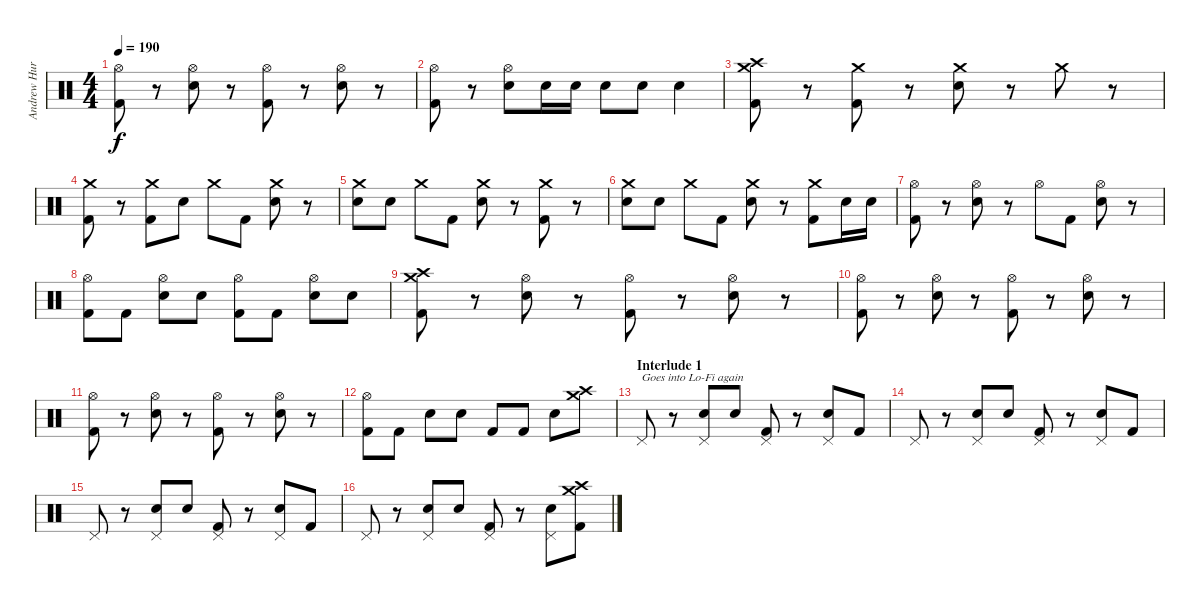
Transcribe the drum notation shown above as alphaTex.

\track ("Andrew Hurley (Drums)" "Andrew Hur") {instrument percussion}
\staff {score}
\articulation defaults
\ts (4 4)
\tempo 190
\clef neutral
\ks c
("Hi-Hat (open)" "Kick (hit) 2").8{dy f} r.8 ("Hi-Hat (open)" "Electric Snare (hit)").8 r.8 ("Hi-Hat (open)" "Kick (hit) 2").8 r.8 ("Hi-Hat (open)" "Electric Snare (hit)").8 r.8 |
("Hi-Hat (open)" "Kick (hit) 2").8 r.8 ("Hi-Hat (open)" "Electric Snare (hit)").8 "Electric Snare (hit)".16 "Electric Snare (hit)".16 "Electric Snare (hit)".8 "Electric Snare (hit)".8 "Electric Snare (hit)".4 |
("Crash medium (hit)" "Crash high (hit)" "Kick (hit) 2").8 r.8 ("Crash medium (hit)" "Kick (hit) 2").8 r.8 ("Crash medium (hit)" "Electric Snare (hit)").8 r.8 "Crash medium (hit)".8 r.8 |
("Crash medium (hit)" "Kick (hit) 2").8 r.8 ("Crash medium (hit)" "Kick (hit) 2").8 "Electric Snare (hit)".8 "Crash medium (hit)".8 "Kick (hit) 2".8 ("Crash medium (hit)" "Electric Snare (hit)").8 r.8 |
("Crash medium (hit)" "Electric Snare (hit)").8 "Electric Snare (hit)".8 "Crash medium (hit)".8 "Kick (hit) 2".8 ("Crash medium (hit)" "Electric Snare (hit)").8 r.8 ("Crash medium (hit)" "Kick (hit) 2").8 r.8 |
("Crash medium (hit)" "Electric Snare (hit)").8 "Electric Snare (hit)".8 "Crash medium (hit)".8 "Kick (hit) 2".8 ("Crash medium (hit)" "Electric Snare (hit)").8 r.8 ("Crash medium (hit)" "Kick (hit) 2").8 "Electric Snare (hit)".16 "Electric Snare (hit)".16 |
("Hi-Hat (open)" "Kick (hit) 2").8 r.8 ("Hi-Hat (open)" "Electric Snare (hit)").8 r.8 "Hi-Hat (open)".8 "Kick (hit) 2".8 ("Hi-Hat (open)" "Electric Snare (hit)").8 r.8 |
("Hi-Hat (open)" "Kick (hit) 2").8 "Kick (hit) 2".8 ("Hi-Hat (open)" "Electric Snare (hit)").8 "Electric Snare (hit)".8 ("Hi-Hat (open)" "Kick (hit) 2").8 "Kick (hit) 2".8 ("Hi-Hat (open)" "Electric Snare (hit)").8 "Electric Snare (hit)".8 |
("Crash high (hit)" "Crash medium (hit)" "Kick (hit) 2").8 r.8 ("Hi-Hat (open)" "Electric Snare (hit)").8 r.8 ("Hi-Hat (open)" "Kick (hit) 2").8 r.8 ("Hi-Hat (open)" "Electric Snare (hit)").8 r.8 |
("Hi-Hat (open)" "Kick (hit) 2").8 r.8 ("Hi-Hat (open)" "Electric Snare (hit)").8 r.8 ("Hi-Hat (open)" "Kick (hit) 2").8 r.8 ("Hi-Hat (open)" "Electric Snare (hit)").8 r.8 |
("Hi-Hat (open)" "Kick (hit) 2").8 r.8 ("Hi-Hat (open)" "Electric Snare (hit)").8 r.8 ("Hi-Hat (open)" "Kick (hit) 2").8 r.8 ("Hi-Hat (open)" "Electric Snare (hit)").8 r.8 |
("Hi-Hat (open)" "Kick (hit) 2").8 "Kick (hit) 2".8 "Electric Snare (hit)".8 "Electric Snare (hit)".8 "Kick (hit) 2".8 "Kick (hit) 2".8 "Electric Snare (hit)".8 ("Crash medium (hit)" "Crash high (hit)").8{volume 9} |
\section ("" "Interlude 1")
"Pedal Hi-Hat (hit)".8{txt "Goes into Lo-Fi again" volume 9} r.8 ("Pedal Hi-Hat (hit)" "Electric Snare (hit)").8 "Electric Snare (hit)".8 ("Pedal Hi-Hat (hit)" "Kick (hit) 2").8 r.8 ("Pedal Hi-Hat (hit)" "Electric Snare (hit)").8 "Kick (hit) 2".8 |
"Pedal Hi-Hat (hit)".8{volume 9} r.8 ("Pedal Hi-Hat (hit)" "Electric Snare (hit)").8 "Electric Snare (hit)".8 ("Pedal Hi-Hat (hit)" "Kick (hit) 2").8 r.8 ("Pedal Hi-Hat (hit)" "Electric Snare (hit)").8 "Kick (hit) 2".8 |
"Pedal Hi-Hat (hit)".8{volume 9} r.8 ("Pedal Hi-Hat (hit)" "Electric Snare (hit)").8 "Electric Snare (hit)".8 ("Pedal Hi-Hat (hit)" "Kick (hit) 2").8 r.8 ("Pedal Hi-Hat (hit)" "Electric Snare (hit)").8 "Kick (hit) 2".8 |
"Pedal Hi-Hat (hit)".8{volume 9} r.8 ("Pedal Hi-Hat (hit)" "Electric Snare (hit)").8 "Electric Snare (hit)".8 ("Pedal Hi-Hat (hit)" "Kick (hit) 2").8 r.8 ("Pedal Hi-Hat (hit)" "Electric Snare (hit)").8 ("Crash medium (hit)" "Crash high (hit)" "Kick (hit) 2").8{volume 14}
